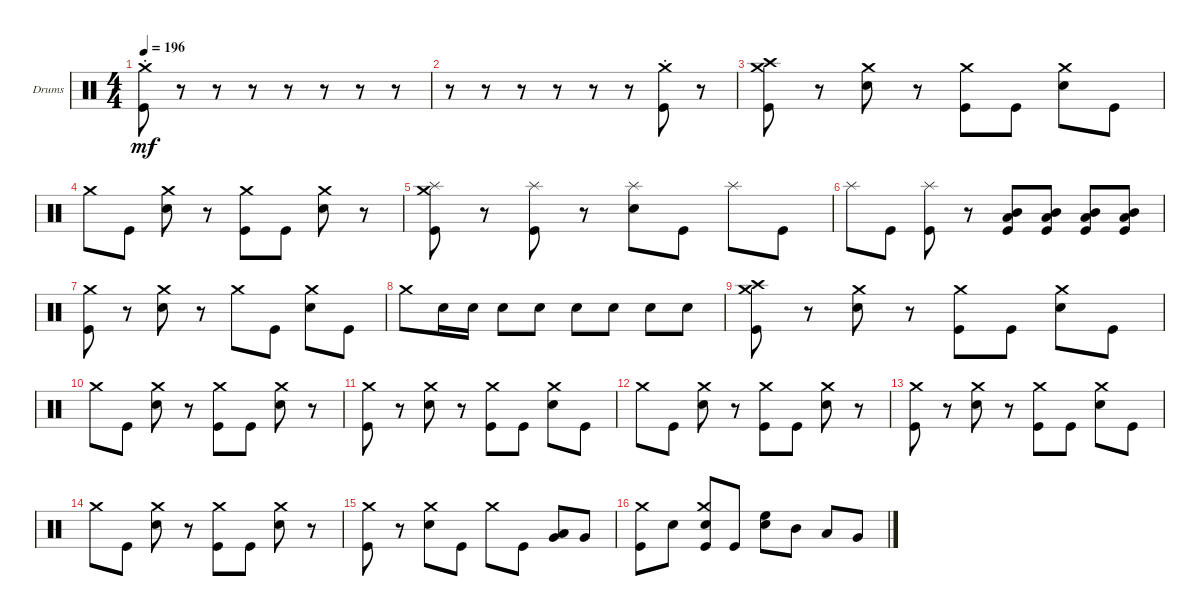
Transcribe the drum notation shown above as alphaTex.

\defaultSystemsLayout 4
\bracketExtendMode groupsimilarinstruments
\firstSystemTrackNameOrientation horizontal
\otherSystemsTrackNameOrientation horizontal
\track ("Drumkit" "Drums") {instrument percussion}
\staff {score}
\articulation defaults
\ts (4 4)
\tempo 196
\clef neutral
\ks c
("Kick (hit)" "Crash medium (hit)"{st}).8{dy mf} r.8 r.8 r.8 r.8 r.8 r.8 r.8 |
r.8 r.8 r.8 r.8 r.8 r.8 ("Kick (hit)" "Crash medium (hit)"{st}).8 r.8 |
("Kick (hit)" "Crash medium (hit)" "Crash high (hit)").8 r.8 ("Snare (hit) 2" "Crash medium (hit)").8 r.8 ("Kick (hit)" "Crash medium (hit)").8 "Kick (hit)".8 ("Snare (hit) 2" "Crash medium (hit)").8 "Kick (hit)".8 |
"Crash medium (hit)".8 "Kick (hit)".8 ("Snare (hit) 2" "Crash medium (hit)").8 r.8 ("Kick (hit)" "Crash medium (hit)").8 "Kick (hit)".8 ("Snare (hit) 2" "Crash medium (hit)").8 r.8 |
("Kick (hit)" "Splash (hit)" "Crash medium (hit)").8 r.8 ("Kick (hit)" "Splash (hit)").8 r.8 ("Snare (hit) 2" "Splash (hit)").8 "Kick (hit)".8 "Splash (hit)".8 "Kick (hit)".8 |
"Splash (hit)".8 "Kick (hit)".8 ("Kick (hit)" "Splash (hit)").8 r.8 ("Kick (hit)" "Low Tom (hit)" "Mid Tom (hit)").8 ("Kick (hit)" "Low Tom (hit)" "Mid Tom (hit)").8 ("Kick (hit)" "Low Tom (hit)" "Mid Tom (hit)").8 ("Kick (hit)" "Low Tom (hit)" "Mid Tom (hit)").8 |
("Kick (hit)" "Crash medium (hit)").8 r.8 ("Snare (hit) 2" "Crash medium (hit)").8 r.8 "Crash medium (hit)".8 "Kick (hit)".8 ("Snare (hit) 2" "Crash medium (hit)").8 "Kick (hit)".8 |
"Crash medium (hit)".8 "Snare (hit) 2".16 "Snare (hit) 2".16 "Snare (hit) 2".8 "Snare (hit) 2".8 "Snare (hit) 2".8 "Snare (hit) 2".8 "Snare (hit) 2".8 "Snare (hit) 2".8 |
("Kick (hit)" "Crash medium (hit)" "Crash high (hit)").8 r.8 ("Snare (hit) 2" "Crash medium (hit)").8 r.8 ("Kick (hit)" "Crash medium (hit)").8 "Kick (hit)".8 ("Snare (hit) 2" "Crash medium (hit)").8 "Kick (hit)".8 |
"Crash medium (hit)".8 "Kick (hit)".8 ("Snare (hit) 2" "Crash medium (hit)").8 r.8 ("Kick (hit)" "Crash medium (hit)").8 "Kick (hit)".8 ("Snare (hit) 2" "Crash medium (hit)").8 r.8 |
("Kick (hit)" "Crash medium (hit)").8 r.8 ("Snare (hit) 2" "Crash medium (hit)").8 r.8 ("Kick (hit)" "Crash medium (hit)").8 "Kick (hit)".8 ("Snare (hit) 2" "Crash medium (hit)").8 "Kick (hit)".8 |
"Crash medium (hit)".8 "Kick (hit)".8 ("Snare (hit) 2" "Crash medium (hit)").8 r.8 ("Kick (hit)" "Crash medium (hit)").8 "Kick (hit)".8 ("Snare (hit) 2" "Crash medium (hit)").8 r.8 |
("Kick (hit)" "Crash medium (hit)").8 r.8 ("Snare (hit) 2" "Crash medium (hit)").8 r.8 ("Kick (hit)" "Crash medium (hit)").8 "Kick (hit)".8 ("Snare (hit) 2" "Crash medium (hit)").8 "Kick (hit)".8 |
"Crash medium (hit)".8 "Kick (hit)".8 ("Snare (hit) 2" "Crash medium (hit)").8 r.8 ("Kick (hit)" "Crash medium (hit)").8 "Kick (hit)".8 ("Snare (hit) 2" "Crash medium (hit)").8 r.8 |
("Kick (hit)" "Crash medium (hit)").8 r.8 ("Snare (hit) 2" "Crash medium (hit)").8 "Kick (hit)".8 "Crash medium (hit)".8 "Kick (hit)".8 ("Low Tom (hit)" "Very Low Tom (hit)").8 "Very Low Tom (hit)".8 |
("Crash medium (hit)" "Kick (hit)").8 "Snare (hit) 2".8 ("Crash medium (hit)" "Kick (hit)" "Snare (hit) 2").8 "Kick (hit)".8 ("Snare (hit) 2" "High Floor Tom (hit)").8 "Mid Tom (hit)".8 "Low Tom (hit)".8 "Very Low Tom (hit)".8
